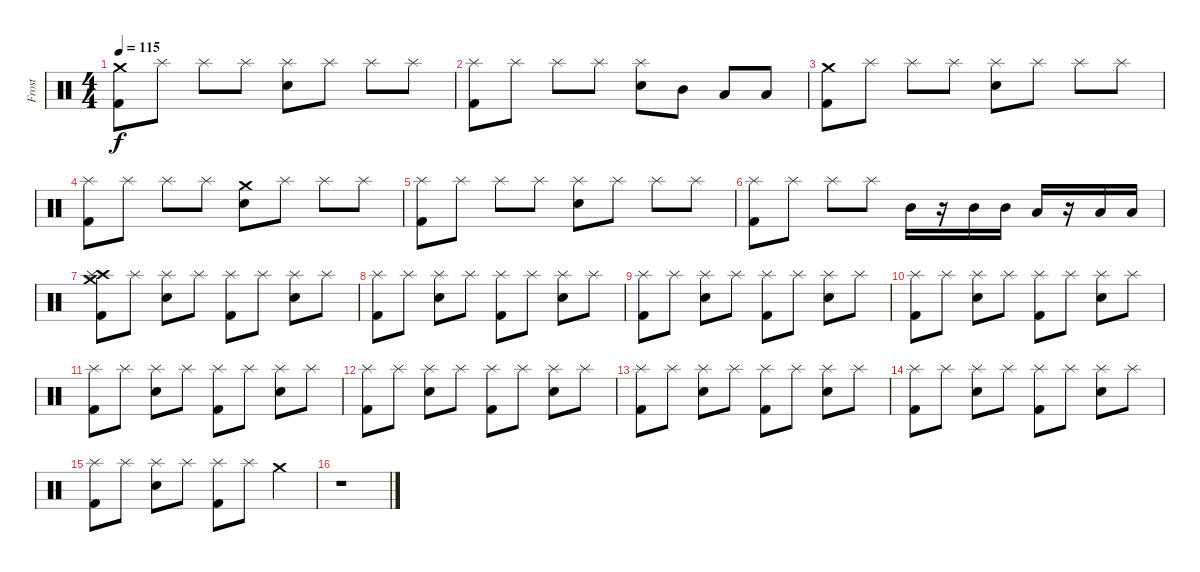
\track ("Frost" "Frost") {instrument percussion}
\staff {score}
\articulation defaults
\ts (4 4)
\tempo 115
\clef neutral
\ks c
("Kick (hit) 2" "Crash medium (hit)").8{dy f} "Splash (hit)".8 "Splash (hit)".8 "Splash (hit)".8 ("Snare (hit) 2" "Splash (hit)").8 "Splash (hit)".8 "Splash (hit)".8 "Splash (hit)".8 |
("Kick (hit) 2" "Splash (hit)").8 "Splash (hit)".8 "Splash (hit)".8 "Splash (hit)".8 ("Snare (hit) 2" "Splash (hit)").8 "Mid Tom (hit)".8 "Low Tom (hit)".8 "Low Tom (hit)".8 |
("Kick (hit) 2" "Crash medium (hit)").8 "Splash (hit)".8 "Splash (hit)".8 "Splash (hit)".8 ("Snare (hit) 2" "Splash (hit)").8 "Splash (hit)".8 "Splash (hit)".8 "Splash (hit)".8 |
("Kick (hit) 2" "Splash (hit)").8 "Splash (hit)".8 "Splash (hit)".8 "Splash (hit)".8 ("Snare (hit) 2" "Crash medium (hit)").8 "Splash (hit)".8 "Splash (hit)".8 "Splash (hit)".8 |
("Kick (hit) 2" "Splash (hit)").8 "Splash (hit)".8 "Splash (hit)".8 "Splash (hit)".8 ("Snare (hit) 2" "Splash (hit)").8 "Splash (hit)".8 "Splash (hit)".8 "Splash (hit)".8 |
("Kick (hit) 2" "Splash (hit)").8 "Splash (hit)".8 "Splash (hit)".8 "Splash (hit)".8 "Mid Tom (hit)".16 r.16 "Mid Tom (hit)".16 "Mid Tom (hit)".16 "Low Tom (hit)".16 r.16 "Low Tom (hit)".16 "Low Tom (hit)".16 |
("Kick (hit) 2" "Crash high (hit)" "Splash (hit)" "Crash medium (hit)").8 "Splash (hit)".8 ("Snare (hit) 2" "Splash (hit)").8 "Splash (hit)".8 ("Kick (hit) 2" "Splash (hit)").8 "Splash (hit)".8 ("Snare (hit) 2" "Splash (hit)").8 "Splash (hit)".8 |
("Kick (hit) 2" "Splash (hit)").8 "Splash (hit)".8 ("Snare (hit) 2" "Splash (hit)").8 "Splash (hit)".8 ("Kick (hit) 2" "Splash (hit)").8 "Splash (hit)".8 ("Snare (hit) 2" "Splash (hit)").8 "Splash (hit)".8 |
("Kick (hit) 2" "Splash (hit)").8 "Splash (hit)".8 ("Snare (hit) 2" "Splash (hit)").8 "Splash (hit)".8 ("Kick (hit) 2" "Splash (hit)").8 "Splash (hit)".8 ("Snare (hit) 2" "Splash (hit)").8 "Splash (hit)".8 |
("Kick (hit) 2" "Splash (hit)").8 "Splash (hit)".8 ("Snare (hit) 2" "Splash (hit)").8 "Splash (hit)".8 ("Kick (hit) 2" "Splash (hit)").8 "Splash (hit)".8 ("Snare (hit) 2" "Splash (hit)").8 "Splash (hit)".8 |
("Kick (hit) 2" "Splash (hit)").8 "Splash (hit)".8 ("Snare (hit) 2" "Splash (hit)").8 "Splash (hit)".8 ("Kick (hit) 2" "Splash (hit)").8 "Splash (hit)".8 ("Snare (hit) 2" "Splash (hit)").8 "Splash (hit)".8 |
("Kick (hit) 2" "Splash (hit)").8 "Splash (hit)".8 ("Snare (hit) 2" "Splash (hit)").8 "Splash (hit)".8 ("Kick (hit) 2" "Splash (hit)").8 "Splash (hit)".8 ("Snare (hit) 2" "Splash (hit)").8 "Splash (hit)".8 |
("Kick (hit) 2" "Splash (hit)").8 "Splash (hit)".8 ("Snare (hit) 2" "Splash (hit)").8 "Splash (hit)".8 ("Kick (hit) 2" "Splash (hit)").8 "Splash (hit)".8 ("Snare (hit) 2" "Splash (hit)").8 "Splash (hit)".8 |
("Kick (hit) 2" "Splash (hit)").8 "Splash (hit)".8 ("Snare (hit) 2" "Splash (hit)").8 "Splash (hit)".8 ("Kick (hit) 2" "Splash (hit)").8 "Splash (hit)".8 ("Snare (hit) 2" "Splash (hit)").8 "Splash (hit)".8 |
("Kick (hit) 2" "Splash (hit)").8 "Splash (hit)".8 ("Snare (hit) 2" "Splash (hit)").8 "Splash (hit)".8 ("Kick (hit) 2" "Splash (hit)").8 "Splash (hit)".8 "Crash medium (hit)".4 |
r.1
